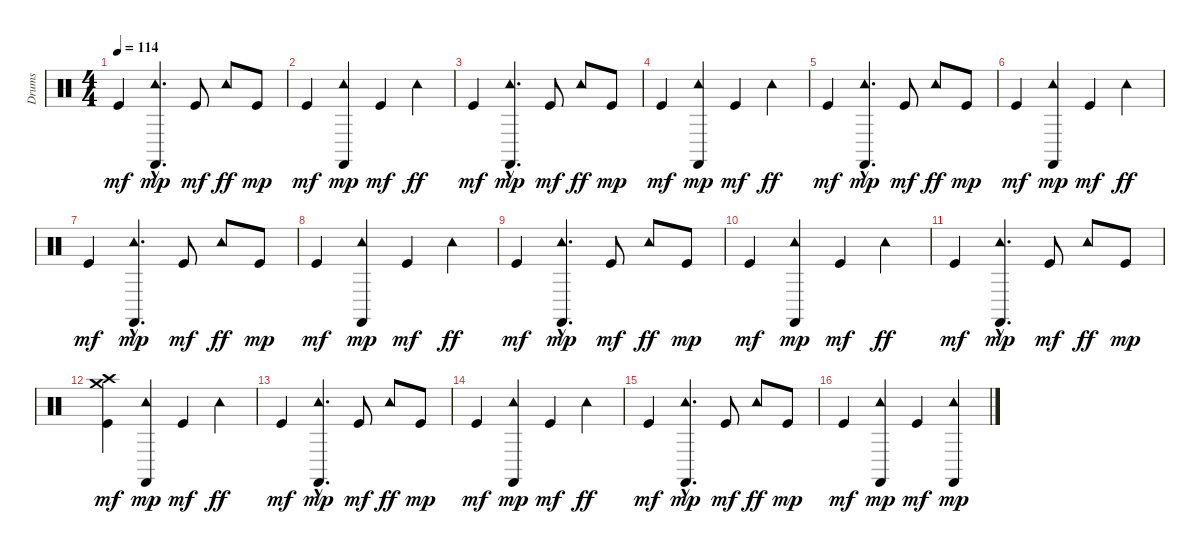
\track ("Drums" "Drums") {instrument percussion}
\staff {score}
\articulation defaults
\ts (4 4)
\tempo 114
\clef neutral
\ks c "Kick (hit)".4{dy mf}
("Tambourine (hit)"{hac} "Castanets (hit)"{hac}).4{d dy mp} "Kick (hit)".8{dy mf} "Tambourine (hit)".8{dy ff} "Kick (hit)".8{dy mp} |
"Kick (hit)".4{dy mf} ("Tambourine (hit)" "Castanets (hit)").4{dy mp} "Kick (hit)".4{dy mf} "Tambourine (hit)".4{dy ff} |
"Kick (hit)".4{dy mf} ("Tambourine (hit)"{hac} "Castanets (hit)"{hac}).4{d dy mp} "Kick (hit)".8{dy mf} "Tambourine (hit)".8{dy ff} "Kick (hit)".8{dy mp} |
"Kick (hit)".4{dy mf} ("Tambourine (hit)" "Castanets (hit)").4{dy mp} "Kick (hit)".4{dy mf} "Tambourine (hit)".4{dy ff} |
"Kick (hit)".4{dy mf} ("Tambourine (hit)"{hac} "Castanets (hit)"{hac}).4{d dy mp} "Kick (hit)".8{dy mf} "Tambourine (hit)".8{dy ff} "Kick (hit)".8{dy mp} |
"Kick (hit)".4{dy mf} ("Tambourine (hit)" "Castanets (hit)").4{dy mp} "Kick (hit)".4{dy mf} "Tambourine (hit)".4{dy ff} |
"Kick (hit)".4{dy mf} ("Tambourine (hit)"{hac} "Castanets (hit)"{hac}).4{d dy mp} "Kick (hit)".8{dy mf} "Tambourine (hit)".8{dy ff} "Kick (hit)".8{dy mp} |
"Kick (hit)".4{dy mf} ("Tambourine (hit)" "Castanets (hit)").4{dy mp} "Kick (hit)".4{dy mf} "Tambourine (hit)".4{dy ff} |
"Kick (hit)".4{dy mf} ("Tambourine (hit)"{hac} "Castanets (hit)"{hac}).4{d dy mp} "Kick (hit)".8{dy mf} "Tambourine (hit)".8{dy ff} "Kick (hit)".8{dy mp} |
"Kick (hit)".4{dy mf} ("Tambourine (hit)" "Castanets (hit)").4{dy mp} "Kick (hit)".4{dy mf} "Tambourine (hit)".4{dy ff} |
"Kick (hit)".4{dy mf} ("Tambourine (hit)"{hac} "Castanets (hit)"{hac}).4{d dy mp} "Kick (hit)".8{dy mf} "Tambourine (hit)".8{dy ff} "Kick (hit)".8{dy mp} |
("Crash medium (hit)" "Crash high (hit)" "Kick (hit)").4{dy mf} ("Tambourine (hit)" "Castanets (hit)").4{dy mp} "Kick (hit)".4{dy mf} "Tambourine (hit)".4{dy ff} |
"Kick (hit)".4{dy mf} ("Tambourine (hit)"{hac} "Castanets (hit)"{hac}).4{d dy mp} "Kick (hit)".8{dy mf} "Tambourine (hit)".8{dy ff} "Kick (hit)".8{dy mp} |
"Kick (hit)".4{dy mf} ("Tambourine (hit)" "Castanets (hit)").4{dy mp} "Kick (hit)".4{dy mf} "Tambourine (hit)".4{dy ff} |
"Kick (hit)".4{dy mf} ("Tambourine (hit)"{hac} "Castanets (hit)"{hac}).4{d dy mp} "Kick (hit)".8{dy mf} "Tambourine (hit)".8{dy ff} "Kick (hit)".8{dy mp} |
"Kick (hit)".4{dy mf} ("Tambourine (hit)" "Castanets (hit)").4{dy mp} "Kick (hit)".4{dy mf} ("Tambourine (hit)" "Castanets (hit)").4{dy mp}
